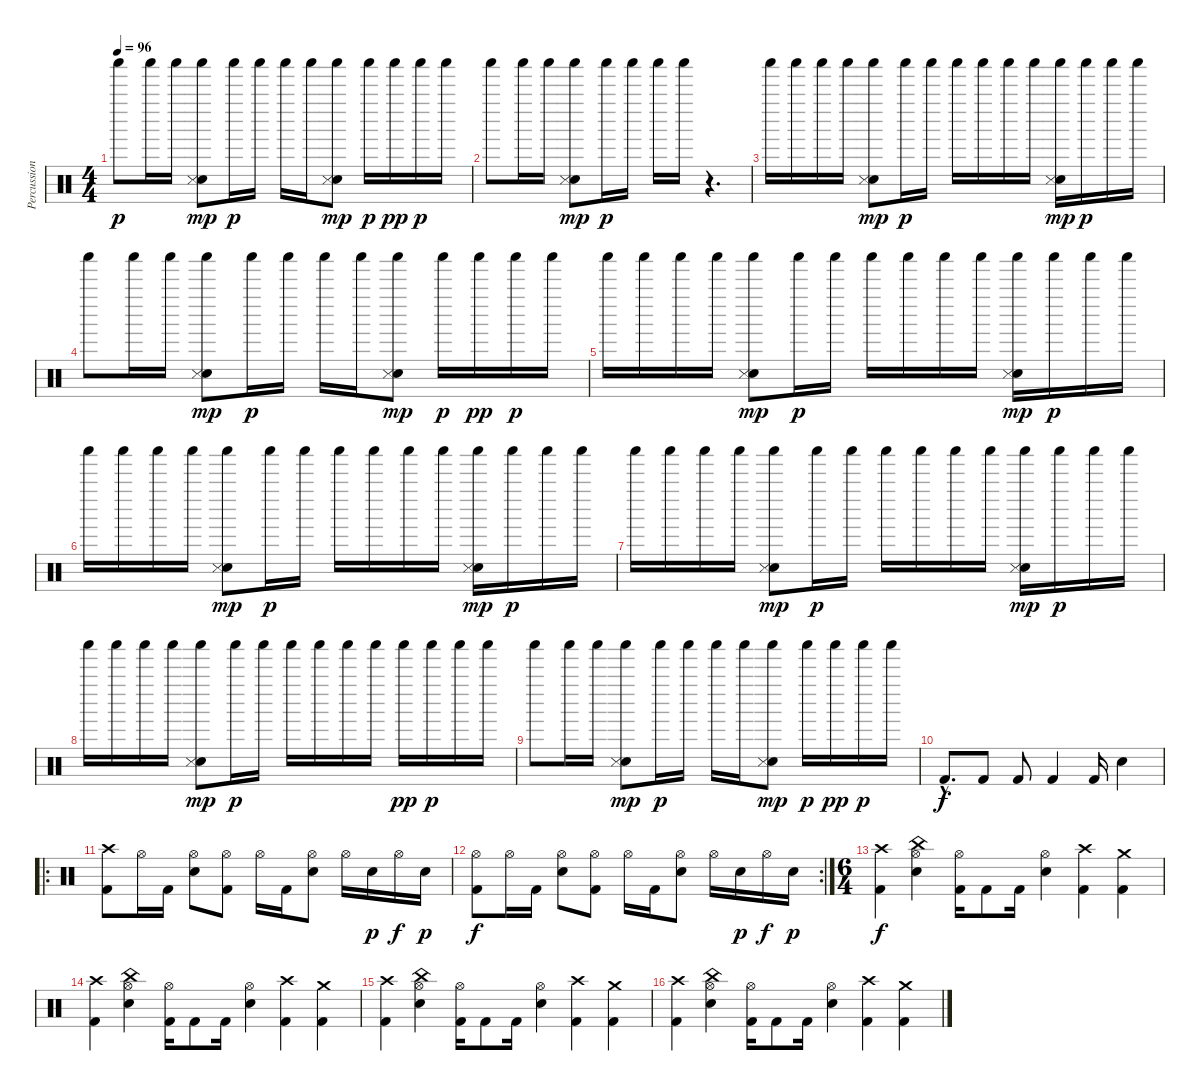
\track ("Percussion" "Percussion") {instrument percussion}
\staff {score}
\articulation defaults
\ts (4 4)
\tempo 96
\clef neutral
\ks c "Shaker (hit)".8{dy p volume 13} "Shaker (hit)".16 "Shaker (hit)".16
("Shaker (hit)" "Hand Clap (hit)" "Snare (side stick) 3").8{dy mp} "Shaker (hit)".16{dy p} "Shaker (hit)".16 "Shaker (hit)".16 "Shaker (hit)".16 ("Shaker (hit)" "Hand Clap (hit)" "Snare (side stick) 3").8{dy mp} "Shaker (hit)".16{dy p} "Shaker (hit)".16{dy pp} "Shaker (hit)".16{dy p} "Shaker (hit)".16 |
"Shaker (hit)".8{volume 13} "Shaker (hit)".16 "Shaker (hit)".16 ("Shaker (hit)" "Hand Clap (hit)" "Snare (side stick) 3").8{dy mp} "Shaker (hit)".16{dy p} "Shaker (hit)".16 "Shaker (hit)".16 "Shaker (hit)".16 r.4{d} |
"Shaker (hit)".16 "Shaker (hit)".16{volume 13} "Shaker (hit)".16 "Shaker (hit)".16 ("Shaker (hit)" "Hand Clap (hit)" "Snare (side stick) 3").8{dy mp} "Shaker (hit)".16{dy p} "Shaker (hit)".16 "Shaker (hit)".16 "Shaker (hit)".16 "Shaker (hit)".16 "Shaker (hit)".16 ("Shaker (hit)" "Hand Clap (hit)" "Snare (side stick) 3").16{dy mp} "Shaker (hit)".16{dy p} "Shaker (hit)".16 "Shaker (hit)".16 |
"Shaker (hit)".8{volume 13} "Shaker (hit)".16 "Shaker (hit)".16 ("Shaker (hit)" "Hand Clap (hit)" "Snare (side stick) 3").8{dy mp} "Shaker (hit)".16{dy p} "Shaker (hit)".16 "Shaker (hit)".16 "Shaker (hit)".16 ("Shaker (hit)" "Hand Clap (hit)" "Snare (side stick) 3").8{dy mp} "Shaker (hit)".16{dy p} "Shaker (hit)".16{dy pp} "Shaker (hit)".16{dy p} "Shaker (hit)".16 |
"Shaker (hit)".16 "Shaker (hit)".16{volume 13} "Shaker (hit)".16 "Shaker (hit)".16 ("Shaker (hit)" "Hand Clap (hit)" "Snare (side stick) 3").8{dy mp} "Shaker (hit)".16{dy p} "Shaker (hit)".16 "Shaker (hit)".16 "Shaker (hit)".16 "Shaker (hit)".16 "Shaker (hit)".16 ("Shaker (hit)" "Hand Clap (hit)" "Snare (side stick) 3").16{dy mp} "Shaker (hit)".16{dy p} "Shaker (hit)".16 "Shaker (hit)".16 |
"Shaker (hit)".16 "Shaker (hit)".16{volume 13} "Shaker (hit)".16 "Shaker (hit)".16 ("Shaker (hit)" "Hand Clap (hit)" "Snare (side stick) 3").8{dy mp} "Shaker (hit)".16{dy p} "Shaker (hit)".16 "Shaker (hit)".16 "Shaker (hit)".16 "Shaker (hit)".16 "Shaker (hit)".16 ("Shaker (hit)" "Hand Clap (hit)" "Snare (side stick) 3").16{dy mp} "Shaker (hit)".16{dy p} "Shaker (hit)".16 "Shaker (hit)".16 |
"Shaker (hit)".16 "Shaker (hit)".16{volume 13} "Shaker (hit)".16 "Shaker (hit)".16 ("Shaker (hit)" "Hand Clap (hit)" "Snare (side stick) 3").8{dy mp} "Shaker (hit)".16{dy p} "Shaker (hit)".16 "Shaker (hit)".16 "Shaker (hit)".16 "Shaker (hit)".16 "Shaker (hit)".16 ("Shaker (hit)" "Hand Clap (hit)" "Snare (side stick) 3").16{dy mp} "Shaker (hit)".16{dy p} "Shaker (hit)".16 "Shaker (hit)".16 |
"Shaker (hit)".16 "Shaker (hit)".16{volume 13} "Shaker (hit)".16 "Shaker (hit)".16 ("Shaker (hit)" "Hand Clap (hit)" "Snare (side stick) 3").8{dy mp} "Shaker (hit)".16{dy p} "Shaker (hit)".16 "Shaker (hit)".16 "Shaker (hit)".16 "Shaker (hit)".16 "Shaker (hit)".16 "Shaker (hit)".16{dy pp} "Shaker (hit)".16{dy p} "Shaker (hit)".16 "Shaker (hit)".16 |
"Shaker (hit)".8{volume 13} "Shaker (hit)".16 "Shaker (hit)".16 ("Shaker (hit)" "Hand Clap (hit)" "Snare (side stick) 3").8{dy mp} "Shaker (hit)".16{dy p} "Shaker (hit)".16 "Shaker (hit)".16 "Shaker (hit)".16 ("Shaker (hit)" "Hand Clap (hit)" "Snare (side stick) 3").8{dy mp} "Shaker (hit)".16{dy p} "Shaker (hit)".16{dy pp} "Shaker (hit)".16{dy p} "Shaker (hit)".16 |
"Kick (hit) 2"{hac}.8{d dy f} "Kick (hit) 2".8 "Kick (hit) 2".8 "Kick (hit) 2".4 "Kick (hit) 2".16 "Electric Snare (hit)"{tr (40 64)}.4 |
\ro
("Crash high (hit)" "Kick (hit) 2").8 "Hi-Hat (open)".16 "Kick (hit) 2".16 ("Hi-Hat (open)" "Snare (hit) 2").8 ("Hi-Hat (open)" "Kick (hit) 2").8 "Hi-Hat (open)".16 "Kick (hit) 2".16 ("Hi-Hat (open)" "Snare (hit) 2").8 "Hi-Hat (open)".16 "Electric Snare (hit)".16{dy p} "Hi-Hat (open)".16{dy f} "Electric Snare (hit)".16{dy p} |
\rc 2
("Hi-Hat (open)" "Kick (hit) 2").8{dy f} "Hi-Hat (open)".16 "Kick (hit) 2".16 ("Hi-Hat (open)" "Snare (hit) 2").8 ("Hi-Hat (open)" "Kick (hit) 2").8 "Hi-Hat (open)".16 "Kick (hit) 2".16 ("Hi-Hat (open)" "Snare (hit) 2").8 "Hi-Hat (open)".16 "Electric Snare (hit)".16{dy p} "Hi-Hat (open)".16{dy f} "Electric Snare (hit)".16{dy p} |
\ts (6 4)
("Crash high (hit)" "Kick (hit) 2").4{dy f volume 16} ("China (hit)" "Hi-Hat (open)" "Electric Snare (hit)").4 ("Hi-Hat (open)" "Kick (hit) 2").16 "Kick (hit) 2".8 "Kick (hit) 2".16 ("Hi-Hat (open)" "Electric Snare (hit)").4 ("Crash high (hit)" "Kick (hit) 2").4 ("Crash medium (hit)" "Kick (hit) 2").4 |
("Crash high (hit)" "Kick (hit) 2").4 ("China (hit)" "Hi-Hat (open)" "Electric Snare (hit)").4 ("Hi-Hat (open)" "Kick (hit) 2").16 "Kick (hit) 2".8 "Kick (hit) 2".16 ("Hi-Hat (open)" "Electric Snare (hit)").4 ("Crash high (hit)" "Kick (hit) 2").4 ("Crash medium (hit)" "Kick (hit) 2").4 |
("Crash high (hit)" "Kick (hit) 2").4 ("China (hit)" "Hi-Hat (open)" "Electric Snare (hit)").4 ("Hi-Hat (open)" "Kick (hit) 2").16 "Kick (hit) 2".8 "Kick (hit) 2".16 ("Hi-Hat (open)" "Electric Snare (hit)").4 ("Crash high (hit)" "Kick (hit) 2").4 ("Crash medium (hit)" "Kick (hit) 2").4 |
("Crash high (hit)" "Kick (hit) 2").4 ("China (hit)" "Hi-Hat (open)" "Electric Snare (hit)").4 ("Hi-Hat (open)" "Kick (hit) 2").16 "Kick (hit) 2".8 "Kick (hit) 2".16 ("Hi-Hat (open)" "Electric Snare (hit)").4 ("Crash high (hit)" "Kick (hit) 2").4 ("Crash medium (hit)" "Kick (hit) 2").4
